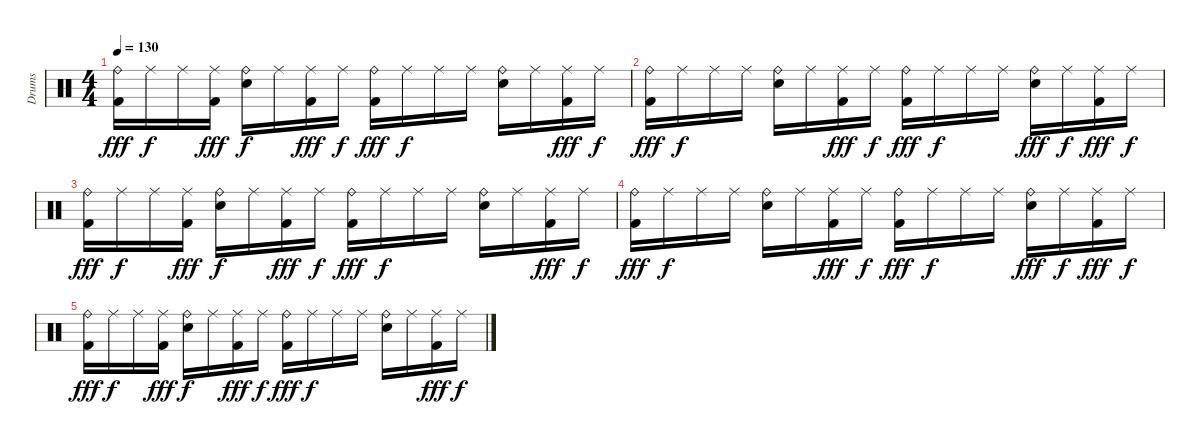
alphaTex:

\track ("Drums" "Drums") {instrument percussion}
\staff {score}
\articulation defaults
\ts (4 4)
\tempo 130
\clef neutral
\ks c
("Ride (bell)" "Kick (hit) 2").16{dy fff} "Ride (middle)".16{dy f} "Ride (middle)".16 ("Ride (middle)" "Kick (hit) 2").16{dy fff} ("Ride (bell)" "Electric Snare (hit)").16{dy f} "Ride (middle)".16 ("Ride (middle)" "Kick (hit) 2").16{dy fff} "Ride (middle)".16{dy f} ("Ride (bell)" "Kick (hit) 2").16{dy fff} "Ride (middle)".16{dy f} "Ride (middle)".16 "Ride (middle)".16 ("Ride (bell)" "Electric Snare (hit)").16 "Ride (middle)".16 ("Ride (middle)" "Kick (hit) 2").16{dy fff} "Ride (middle)".16{dy f} |
("Ride (bell)" "Kick (hit) 2").16{dy fff} "Ride (middle)".16{dy f} "Ride (middle)".16 "Ride (middle)".16 ("Ride (bell)" "Electric Snare (hit)").16 "Ride (middle)".16 ("Ride (middle)" "Kick (hit) 2").16{dy fff} "Ride (middle)".16{dy f} ("Ride (bell)" "Kick (hit) 2").16{dy fff} "Ride (middle)".16{dy f} "Ride (middle)".16 "Ride (middle)".16 ("Ride (bell)" "Hand Clap (hit)").16{dy fff} "Ride (middle)".16{dy f} ("Ride (middle)" "Kick (hit) 2").16{dy fff} "Ride (middle)".16{dy f} |
("Ride (bell)" "Kick (hit) 2").16{dy fff} "Ride (middle)".16{dy f} "Ride (middle)".16 ("Ride (middle)" "Kick (hit) 2").16{dy fff} ("Ride (bell)" "Electric Snare (hit)").16{dy f} "Ride (middle)".16 ("Ride (middle)" "Kick (hit) 2").16{dy fff} "Ride (middle)".16{dy f} ("Ride (bell)" "Kick (hit) 2").16{dy fff} "Ride (middle)".16{dy f} "Ride (middle)".16 "Ride (middle)".16 ("Ride (bell)" "Electric Snare (hit)").16 "Ride (middle)".16 ("Ride (middle)" "Kick (hit) 2").16{dy fff} "Ride (middle)".16{dy f} |
("Ride (bell)" "Kick (hit) 2").16{dy fff} "Ride (middle)".16{dy f} "Ride (middle)".16 "Ride (middle)".16 ("Ride (bell)" "Electric Snare (hit)").16 "Ride (middle)".16 ("Ride (middle)" "Kick (hit) 2").16{dy fff} "Ride (middle)".16{dy f} ("Ride (bell)" "Kick (hit) 2").16{dy fff} "Ride (middle)".16{dy f} "Ride (middle)".16 "Ride (middle)".16 ("Ride (bell)" "Hand Clap (hit)").16{dy fff} "Ride (middle)".16{dy f} ("Ride (middle)" "Kick (hit) 2").16{dy fff} "Ride (middle)".16{dy f} |
("Ride (bell)" "Kick (hit) 2").16{dy fff} "Ride (middle)".16{dy f} "Ride (middle)".16 ("Ride (middle)" "Kick (hit) 2").16{dy fff} ("Ride (bell)" "Electric Snare (hit)").16{dy f} "Ride (middle)".16 ("Ride (middle)" "Kick (hit) 2").16{dy fff} "Ride (middle)".16{dy f} ("Ride (bell)" "Kick (hit) 2").16{dy fff} "Ride (middle)".16{dy f} "Ride (middle)".16 "Ride (middle)".16 ("Ride (bell)" "Electric Snare (hit)").16 "Ride (middle)".16 ("Ride (middle)" "Kick (hit) 2").16{dy fff} "Ride (middle)".16{dy f}
